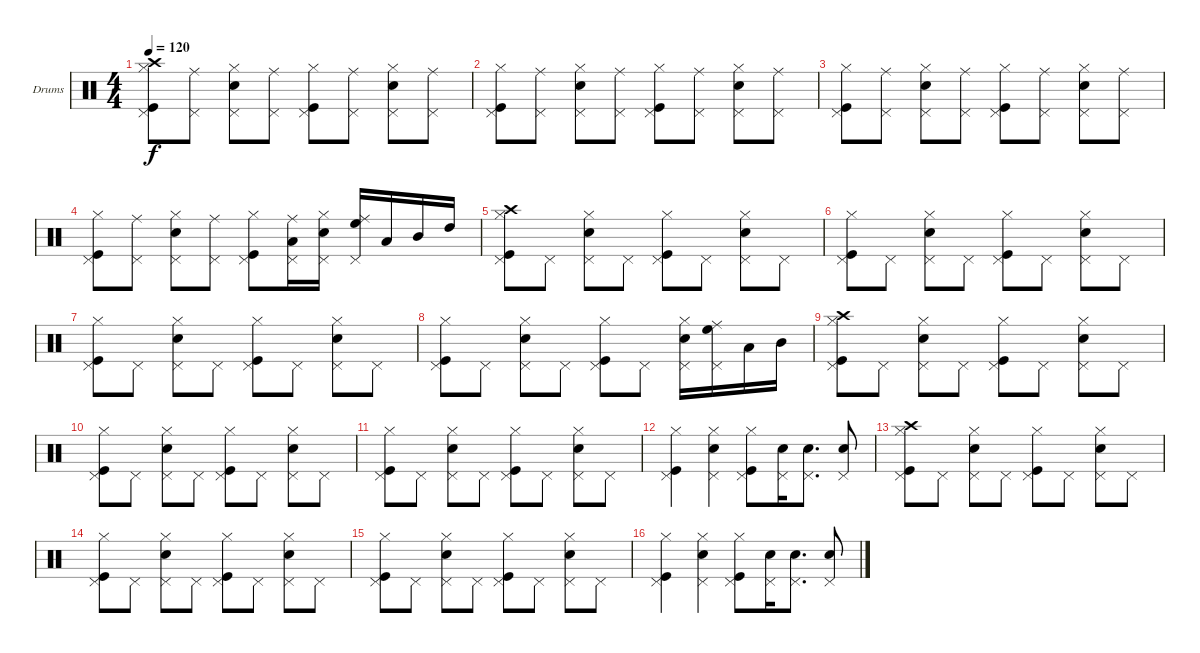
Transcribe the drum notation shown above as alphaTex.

\defaultSystemsLayout 4
\bracketExtendMode groupsimilarinstruments
\firstSystemTrackNameOrientation horizontal
\otherSystemsTrackNameOrientation horizontal
\track ("Drumkit" "Drums") {instrument percussion}
\staff {score}
\articulation defaults
\ts (4 4)
\tempo 120
\clef neutral
\ks c
("Hi-Hat (closed)" "Crash high (hit)" "Kick (hit)" "Pedal Hi-Hat (hit)").8{dy f} ("Pedal Hi-Hat (hit)" "Ride (middle)").8 ("Snare (hit) 2" "Hi-Hat (closed)" "Pedal Hi-Hat (hit)").8 ("Pedal Hi-Hat (hit)" "Ride (middle)").8 ("Kick (hit)" "Hi-Hat (closed)" "Pedal Hi-Hat (hit)").8 ("Pedal Hi-Hat (hit)" "Ride (middle)").8 ("Snare (hit) 2" "Hi-Hat (closed)" "Pedal Hi-Hat (hit)").8 ("Pedal Hi-Hat (hit)" "Ride (middle)").8 |
("Hi-Hat (closed)" "Kick (hit)" "Pedal Hi-Hat (hit)").8 ("Pedal Hi-Hat (hit)" "Ride (middle)").8 ("Snare (hit) 2" "Hi-Hat (closed)" "Pedal Hi-Hat (hit)").8 ("Pedal Hi-Hat (hit)" "Ride (middle)").8 ("Kick (hit)" "Hi-Hat (closed)" "Pedal Hi-Hat (hit)").8 ("Pedal Hi-Hat (hit)" "Ride (middle)").8 ("Snare (hit) 2" "Hi-Hat (closed)" "Pedal Hi-Hat (hit)").8 ("Pedal Hi-Hat (hit)" "Ride (middle)").8 |
("Hi-Hat (closed)" "Kick (hit)" "Pedal Hi-Hat (hit)").8 ("Pedal Hi-Hat (hit)" "Ride (middle)").8 ("Snare (hit) 2" "Hi-Hat (closed)" "Pedal Hi-Hat (hit)").8 ("Pedal Hi-Hat (hit)" "Ride (middle)").8 ("Kick (hit)" "Hi-Hat (closed)" "Pedal Hi-Hat (hit)").8 ("Pedal Hi-Hat (hit)" "Ride (middle)").8 ("Snare (hit) 2" "Hi-Hat (closed)" "Pedal Hi-Hat (hit)").8 ("Pedal Hi-Hat (hit)" "Ride (middle)").8 |
("Hi-Hat (closed)" "Kick (hit)" "Pedal Hi-Hat (hit)").8 ("Pedal Hi-Hat (hit)" "Ride (middle)").8 ("Snare (hit) 2" "Hi-Hat (closed)" "Pedal Hi-Hat (hit)").8 ("Pedal Hi-Hat (hit)" "Ride (middle)").8 ("Kick (hit)" "Hi-Hat (closed)" "Pedal Hi-Hat (hit)").8 ("Pedal Hi-Hat (hit)" "Ride (middle)" "Low Tom (hit)").16 ("Snare (hit) 2" "Hi-Hat (closed)" "Pedal Hi-Hat (hit)").16 ("Pedal Hi-Hat (hit)" "Ride (middle)" "High Floor Tom (hit)").16 "Low Tom (hit)".16 "Mid Tom (hit)".16 "High Tom (hit)".16 |
("Hi-Hat (closed)" "Crash high (hit)" "Kick (hit)" "Pedal Hi-Hat (hit)").8 "Pedal Hi-Hat (hit)".8 ("Snare (hit) 2" "Hi-Hat (closed)" "Pedal Hi-Hat (hit)").8 "Pedal Hi-Hat (hit)".8 ("Kick (hit)" "Hi-Hat (closed)" "Pedal Hi-Hat (hit)").8 "Pedal Hi-Hat (hit)".8 ("Snare (hit) 2" "Hi-Hat (closed)" "Pedal Hi-Hat (hit)").8 "Pedal Hi-Hat (hit)".8 |
("Hi-Hat (closed)" "Kick (hit)" "Pedal Hi-Hat (hit)").8 "Pedal Hi-Hat (hit)".8 ("Snare (hit) 2" "Hi-Hat (closed)" "Pedal Hi-Hat (hit)").8 "Pedal Hi-Hat (hit)".8 ("Kick (hit)" "Hi-Hat (closed)" "Pedal Hi-Hat (hit)").8 "Pedal Hi-Hat (hit)".8 ("Snare (hit) 2" "Hi-Hat (closed)" "Pedal Hi-Hat (hit)").8 "Pedal Hi-Hat (hit)".8 |
("Hi-Hat (closed)" "Kick (hit)" "Pedal Hi-Hat (hit)").8 "Pedal Hi-Hat (hit)".8 ("Snare (hit) 2" "Hi-Hat (closed)" "Pedal Hi-Hat (hit)").8 "Pedal Hi-Hat (hit)".8 ("Kick (hit)" "Hi-Hat (closed)" "Pedal Hi-Hat (hit)").8 "Pedal Hi-Hat (hit)".8 ("Snare (hit) 2" "Hi-Hat (closed)" "Pedal Hi-Hat (hit)").8 "Pedal Hi-Hat (hit)".8 |
("Hi-Hat (closed)" "Kick (hit)" "Pedal Hi-Hat (hit)").8 "Pedal Hi-Hat (hit)".8 ("Snare (hit) 2" "Hi-Hat (closed)" "Pedal Hi-Hat (hit)").8 "Pedal Hi-Hat (hit)".8 ("Kick (hit)" "Hi-Hat (closed)" "Pedal Hi-Hat (hit)").8 "Pedal Hi-Hat (hit)".8 ("Snare (hit) 2" "Hi-Hat (closed)" "Pedal Hi-Hat (hit)").16 ("Pedal Hi-Hat (hit)" "Ride (middle)" "High Floor Tom (hit)").16 "Low Tom (hit)".16 "Mid Tom (hit)".16 |
("Hi-Hat (closed)" "Crash high (hit)" "Kick (hit)" "Pedal Hi-Hat (hit)").8 "Pedal Hi-Hat (hit)".8 ("Snare (hit) 2" "Hi-Hat (closed)" "Pedal Hi-Hat (hit)").8 "Pedal Hi-Hat (hit)".8 ("Kick (hit)" "Hi-Hat (closed)" "Pedal Hi-Hat (hit)").8 "Pedal Hi-Hat (hit)".8 ("Snare (hit) 2" "Hi-Hat (closed)" "Pedal Hi-Hat (hit)").8 "Pedal Hi-Hat (hit)".8 |
("Hi-Hat (closed)" "Kick (hit)" "Pedal Hi-Hat (hit)").8 "Pedal Hi-Hat (hit)".8 ("Snare (hit) 2" "Hi-Hat (closed)" "Pedal Hi-Hat (hit)").8 "Pedal Hi-Hat (hit)".8 ("Kick (hit)" "Hi-Hat (closed)" "Pedal Hi-Hat (hit)").8 "Pedal Hi-Hat (hit)".8 ("Snare (hit) 2" "Hi-Hat (closed)" "Pedal Hi-Hat (hit)").8 "Pedal Hi-Hat (hit)".8 |
("Hi-Hat (closed)" "Kick (hit)" "Pedal Hi-Hat (hit)").8 "Pedal Hi-Hat (hit)".8 ("Snare (hit) 2" "Hi-Hat (closed)" "Pedal Hi-Hat (hit)").8 "Pedal Hi-Hat (hit)".8 ("Kick (hit)" "Hi-Hat (closed)" "Pedal Hi-Hat (hit)").8 "Pedal Hi-Hat (hit)".8 ("Snare (hit) 2" "Hi-Hat (closed)" "Pedal Hi-Hat (hit)").8 "Pedal Hi-Hat (hit)".8 |
("Hi-Hat (closed)" "Kick (hit)" "Pedal Hi-Hat (hit)").4 ("Hi-Hat (closed)" "Snare (hit) 2" "Pedal Hi-Hat (hit)").4 ("Hi-Hat (closed)" "Kick (hit)" "Pedal Hi-Hat (hit)").8 ("Pedal Hi-Hat (hit)" "Snare (hit) 2").16 ("Pedal Hi-Hat (hit)" "Snare (hit) 2").8{d} ("Pedal Hi-Hat (hit)" "Snare (hit) 2").8 |
("Hi-Hat (closed)" "Crash high (hit)" "Kick (hit)" "Pedal Hi-Hat (hit)").8 "Pedal Hi-Hat (hit)".8 ("Snare (hit) 2" "Hi-Hat (closed)" "Pedal Hi-Hat (hit)").8 "Pedal Hi-Hat (hit)".8 ("Kick (hit)" "Hi-Hat (closed)" "Pedal Hi-Hat (hit)").8 "Pedal Hi-Hat (hit)".8 ("Snare (hit) 2" "Hi-Hat (closed)" "Pedal Hi-Hat (hit)").8 "Pedal Hi-Hat (hit)".8 |
("Hi-Hat (closed)" "Kick (hit)" "Pedal Hi-Hat (hit)").8 "Pedal Hi-Hat (hit)".8 ("Snare (hit) 2" "Hi-Hat (closed)" "Pedal Hi-Hat (hit)").8 "Pedal Hi-Hat (hit)".8 ("Kick (hit)" "Hi-Hat (closed)" "Pedal Hi-Hat (hit)").8 "Pedal Hi-Hat (hit)".8 ("Snare (hit) 2" "Hi-Hat (closed)" "Pedal Hi-Hat (hit)").8 "Pedal Hi-Hat (hit)".8 |
("Hi-Hat (closed)" "Kick (hit)" "Pedal Hi-Hat (hit)").8 "Pedal Hi-Hat (hit)".8 ("Snare (hit) 2" "Hi-Hat (closed)" "Pedal Hi-Hat (hit)").8 "Pedal Hi-Hat (hit)".8 ("Kick (hit)" "Hi-Hat (closed)" "Pedal Hi-Hat (hit)").8 "Pedal Hi-Hat (hit)".8 ("Snare (hit) 2" "Hi-Hat (closed)" "Pedal Hi-Hat (hit)").8 "Pedal Hi-Hat (hit)".8 |
("Hi-Hat (closed)" "Kick (hit)" "Pedal Hi-Hat (hit)").4 ("Hi-Hat (closed)" "Snare (hit) 2" "Pedal Hi-Hat (hit)").4 ("Hi-Hat (closed)" "Kick (hit)" "Pedal Hi-Hat (hit)").8 ("Pedal Hi-Hat (hit)" "Snare (hit) 2").16 ("Pedal Hi-Hat (hit)" "Snare (hit) 2").8{d} ("Pedal Hi-Hat (hit)" "Snare (hit) 2").8
